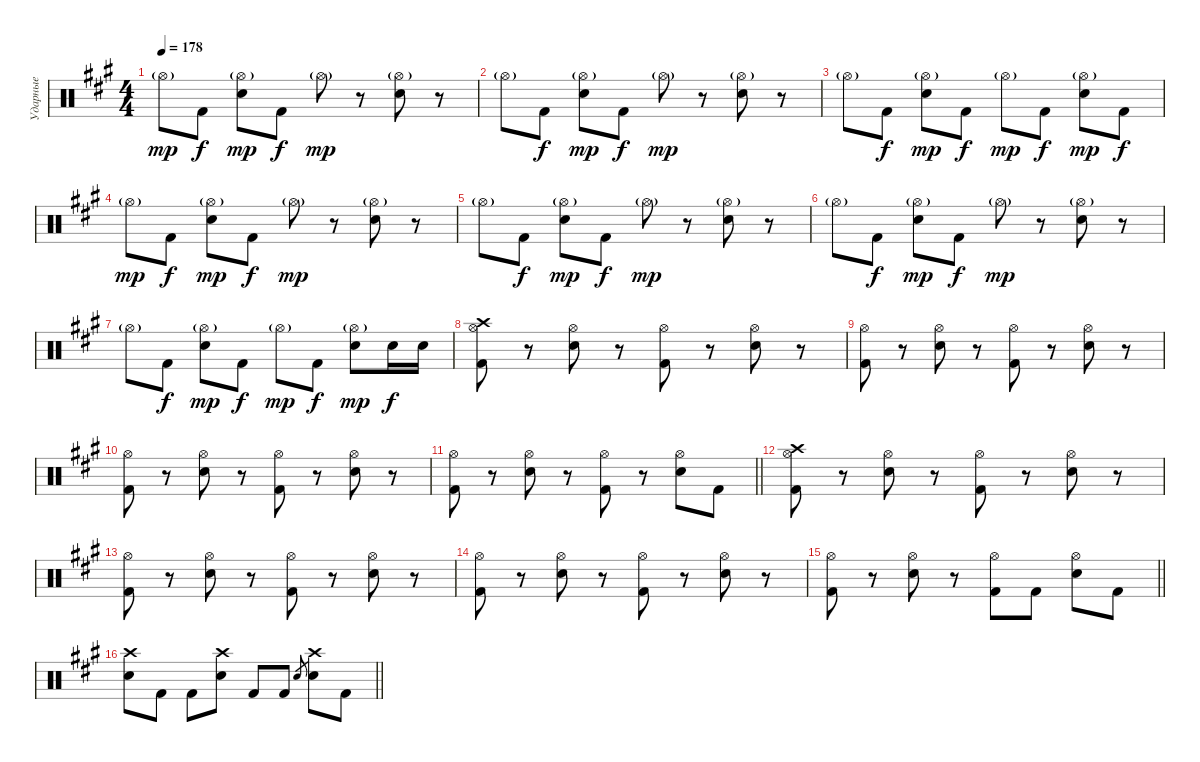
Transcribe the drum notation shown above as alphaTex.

\track ("Ударные" "Ударные") {instrument percussion}
\staff {score}
\articulation defaults
\ts (4 4)
\tempo 178
\clef neutral
\ks f#minor "Hi-Hat (open)"{g}.8{dy mp} "Kick (hit) 2".8{dy f}
("Electric Snare (hit)" "Hi-Hat (open)"{g}).8{dy mp} "Kick (hit) 2".8{dy f} "Hi-Hat (open)"{g}.8{dy mp} r.8 ("Electric Snare (hit)" "Hi-Hat (open)"{g}).8 r.8 |
"Hi-Hat (open)"{g}.8 "Kick (hit) 2".8{dy f} ("Electric Snare (hit)" "Hi-Hat (open)"{g}).8{dy mp} "Kick (hit) 2".8{dy f} "Hi-Hat (open)"{g}.8{dy mp} r.8 ("Electric Snare (hit)" "Hi-Hat (open)"{g}).8 r.8 |
"Hi-Hat (open)"{g}.8 "Kick (hit) 2".8{dy f} ("Electric Snare (hit)" "Hi-Hat (open)"{g}).8{dy mp} "Kick (hit) 2".8{dy f} "Hi-Hat (open)"{g}.8{dy mp} "Kick (hit) 2".8{dy f} ("Electric Snare (hit)" "Hi-Hat (open)"{g}).8{dy mp} "Kick (hit) 2".8{dy f} |
"Hi-Hat (open)"{g}.8{dy mp} "Kick (hit) 2".8{dy f} ("Electric Snare (hit)" "Hi-Hat (open)"{g}).8{dy mp} "Kick (hit) 2".8{dy f} "Hi-Hat (open)"{g}.8{dy mp} r.8 ("Electric Snare (hit)" "Hi-Hat (open)"{g}).8 r.8 |
"Hi-Hat (open)"{g}.8 "Kick (hit) 2".8{dy f} ("Electric Snare (hit)" "Hi-Hat (open)"{g}).8{dy mp} "Kick (hit) 2".8{dy f} "Hi-Hat (open)"{g}.8{dy mp} r.8 ("Electric Snare (hit)" "Hi-Hat (open)"{g}).8 r.8 |
"Hi-Hat (open)"{g}.8 "Kick (hit) 2".8{dy f} ("Electric Snare (hit)" "Hi-Hat (open)"{g}).8{dy mp} "Kick (hit) 2".8{dy f} "Hi-Hat (open)"{g}.8{dy mp} r.8 ("Electric Snare (hit)" "Hi-Hat (open)"{g}).8 r.8 |
"Hi-Hat (open)"{g}.8 "Kick (hit) 2".8{dy f} ("Electric Snare (hit)" "Hi-Hat (open)"{g}).8{dy mp} "Kick (hit) 2".8{dy f} "Hi-Hat (open)"{g}.8{dy mp} "Kick (hit) 2".8{dy f} ("Electric Snare (hit)" "Hi-Hat (open)"{g}).8{dy mp} "Electric Snare (hit)".16{dy f} "Electric Snare (hit)".16 |
("Crash high (hit)" "Kick (hit) 2" "Hi-Hat (open)").8 r.8 ("Electric Snare (hit)" "Hi-Hat (open)").8 r.8 ("Kick (hit) 2" "Hi-Hat (open)").8 r.8 ("Electric Snare (hit)" "Hi-Hat (open)").8 r.8 |
("Kick (hit) 2" "Hi-Hat (open)").8 r.8 ("Electric Snare (hit)" "Hi-Hat (open)").8 r.8 ("Kick (hit) 2" "Hi-Hat (open)").8 r.8 ("Electric Snare (hit)" "Hi-Hat (open)").8 r.8 |
("Kick (hit) 2" "Hi-Hat (open)").8 r.8 ("Electric Snare (hit)" "Hi-Hat (open)").8 r.8 ("Kick (hit) 2" "Hi-Hat (open)").8 r.8 ("Electric Snare (hit)" "Hi-Hat (open)").8 r.8 |
\barLineRight lightlight
("Kick (hit) 2" "Hi-Hat (open)").8 r.8 ("Electric Snare (hit)" "Hi-Hat (open)").8 r.8 ("Kick (hit) 2" "Hi-Hat (open)").8 r.8 ("Electric Snare (hit)" "Hi-Hat (open)").8 "Kick (hit) 2".8 |
("Crash high (hit)" "Kick (hit) 2" "Hi-Hat (open)").8 r.8 ("Electric Snare (hit)" "Hi-Hat (open)").8 r.8 ("Kick (hit) 2" "Hi-Hat (open)").8 r.8 ("Electric Snare (hit)" "Hi-Hat (open)").8 r.8 |
("Kick (hit) 2" "Hi-Hat (open)").8 r.8 ("Electric Snare (hit)" "Hi-Hat (open)").8 r.8 ("Kick (hit) 2" "Hi-Hat (open)").8 r.8 ("Electric Snare (hit)" "Hi-Hat (open)").8 r.8 |
("Kick (hit) 2" "Hi-Hat (open)").8 r.8 ("Electric Snare (hit)" "Hi-Hat (open)").8 r.8 ("Kick (hit) 2" "Hi-Hat (open)").8 r.8 ("Electric Snare (hit)" "Hi-Hat (open)").8 r.8 |
\barLineRight lightlight
("Kick (hit) 2" "Hi-Hat (open)").8 r.8 ("Electric Snare (hit)" "Hi-Hat (open)").8 r.8 ("Kick (hit) 2" "Hi-Hat (open)").8 "Kick (hit) 2".8 ("Electric Snare (hit)" "Hi-Hat (open)").8 "Kick (hit) 2".8 |
\barLineRight lightlight
("Crash high (hit)" "Electric Snare (hit)").8 "Kick (hit) 2".8 "Kick (hit) 2".8 ("Crash high (hit)" "Electric Snare (hit)").8 "Kick (hit) 2".8 "Kick (hit) 2".8 "Electric Snare (hit)".8{gr} ("Crash high (hit)" "Electric Snare (hit)").8 "Kick (hit) 2".8
